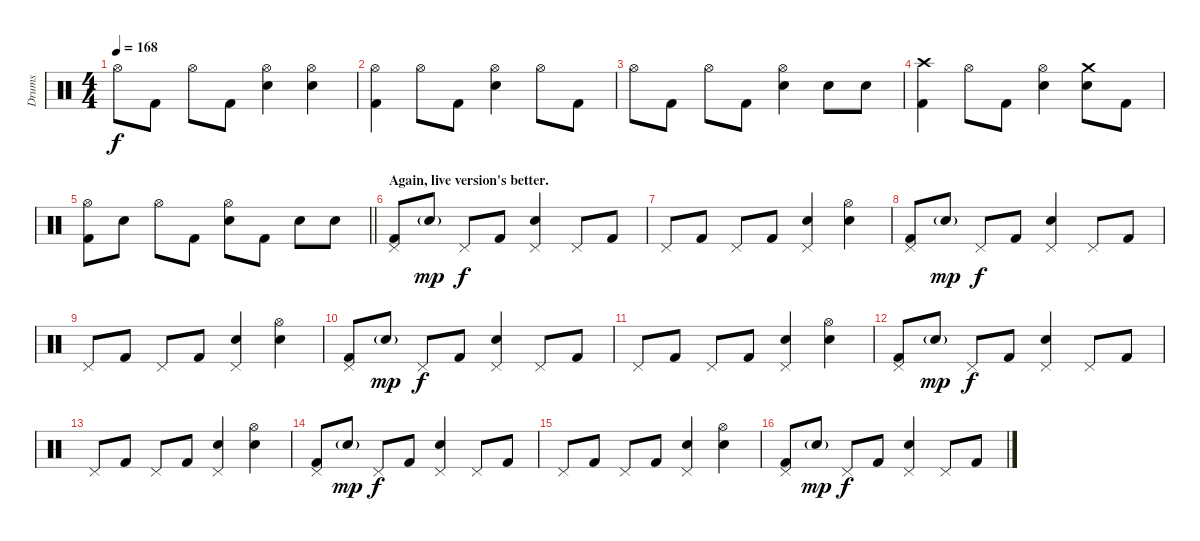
\track ("Drums" "Drums") {instrument percussion}
\staff {score}
\articulation defaults
\ts (4 4)
\tempo 168
\clef neutral
\ks c "Hi-Hat (open)".8{dy f} "Kick (hit) 2".8 "Hi-Hat (open)".8 "Kick (hit) 2".8
("Hi-Hat (open)" "Snare (hit) 2").4 ("Hi-Hat (open)" "Snare (hit) 2").4 |
("Hi-Hat (open)" "Kick (hit) 2").4 "Hi-Hat (open)".8 "Kick (hit) 2".8 ("Hi-Hat (open)" "Snare (hit) 2").4 "Hi-Hat (open)".8 "Kick (hit) 2".8 |
"Hi-Hat (open)".8 "Kick (hit) 2".8 "Hi-Hat (open)".8 "Kick (hit) 2".8 ("Hi-Hat (open)" "Snare (hit) 2").4 "Snare (hit) 2".8 "Snare (hit) 2".8 |
("Crash high (hit)" "Kick (hit) 2").4 "Hi-Hat (open)".8 "Kick (hit) 2".8 ("Hi-Hat (open)" "Snare (hit) 2").4 ("Crash medium (hit)" "Snare (hit) 2").8 "Kick (hit) 2".8 |
\barLineRight lightlight
("Hi-Hat (open)" "Kick (hit) 2").8 "Snare (hit) 2".8 "Hi-Hat (open)".8 "Kick (hit) 2".8 ("Hi-Hat (open)" "Snare (hit) 2").8 "Kick (hit) 2".8 "Snare (hit) 2".8 "Snare (hit) 2".8 |
\section ("" "Again, live version's better.")
("Pedal Hi-Hat (hit)" "Kick (hit) 2").8 "Snare (hit) 2"{g}.8{dy mp} "Pedal Hi-Hat (hit)".8{dy f} "Kick (hit) 2".8 ("Pedal Hi-Hat (hit)" "Snare (hit) 2").4 "Pedal Hi-Hat (hit)".8 "Kick (hit) 2".8 |
"Pedal Hi-Hat (hit)".8 "Kick (hit) 2".8 "Pedal Hi-Hat (hit)".8 "Kick (hit) 2".8 ("Pedal Hi-Hat (hit)" "Snare (hit) 2").4 ("Hi-Hat (open)" "Snare (hit) 2").4 |
("Pedal Hi-Hat (hit)" "Kick (hit) 2").8 "Snare (hit) 2"{g}.8{dy mp} "Pedal Hi-Hat (hit)".8{dy f} "Kick (hit) 2".8 ("Pedal Hi-Hat (hit)" "Snare (hit) 2").4 "Pedal Hi-Hat (hit)".8 "Kick (hit) 2".8 |
"Pedal Hi-Hat (hit)".8 "Kick (hit) 2".8 "Pedal Hi-Hat (hit)".8 "Kick (hit) 2".8 ("Pedal Hi-Hat (hit)" "Snare (hit) 2").4 ("Hi-Hat (open)" "Snare (hit) 2").4 |
("Pedal Hi-Hat (hit)" "Kick (hit) 2").8 "Snare (hit) 2"{g}.8{dy mp} "Pedal Hi-Hat (hit)".8{dy f} "Kick (hit) 2".8 ("Pedal Hi-Hat (hit)" "Snare (hit) 2").4 "Pedal Hi-Hat (hit)".8 "Kick (hit) 2".8 |
"Pedal Hi-Hat (hit)".8 "Kick (hit) 2".8 "Pedal Hi-Hat (hit)".8 "Kick (hit) 2".8 ("Pedal Hi-Hat (hit)" "Snare (hit) 2").4 ("Hi-Hat (open)" "Snare (hit) 2").4 |
("Pedal Hi-Hat (hit)" "Kick (hit) 2").8 "Snare (hit) 2"{g}.8{dy mp} "Pedal Hi-Hat (hit)".8{dy f} "Kick (hit) 2".8 ("Pedal Hi-Hat (hit)" "Snare (hit) 2").4 "Pedal Hi-Hat (hit)".8 "Kick (hit) 2".8 |
"Pedal Hi-Hat (hit)".8 "Kick (hit) 2".8 "Pedal Hi-Hat (hit)".8 "Kick (hit) 2".8 ("Pedal Hi-Hat (hit)" "Snare (hit) 2").4 ("Hi-Hat (open)" "Snare (hit) 2").4 |
("Pedal Hi-Hat (hit)" "Kick (hit) 2").8 "Snare (hit) 2"{g}.8{dy mp} "Pedal Hi-Hat (hit)".8{dy f} "Kick (hit) 2".8 ("Pedal Hi-Hat (hit)" "Snare (hit) 2").4 "Pedal Hi-Hat (hit)".8 "Kick (hit) 2".8 |
"Pedal Hi-Hat (hit)".8 "Kick (hit) 2".8 "Pedal Hi-Hat (hit)".8 "Kick (hit) 2".8 ("Pedal Hi-Hat (hit)" "Snare (hit) 2").4 ("Hi-Hat (open)" "Snare (hit) 2").4 |
("Pedal Hi-Hat (hit)" "Kick (hit) 2").8 "Snare (hit) 2"{g}.8{dy mp} "Pedal Hi-Hat (hit)".8{dy f} "Kick (hit) 2".8 ("Pedal Hi-Hat (hit)" "Snare (hit) 2").4 "Pedal Hi-Hat (hit)".8 "Kick (hit) 2".8
